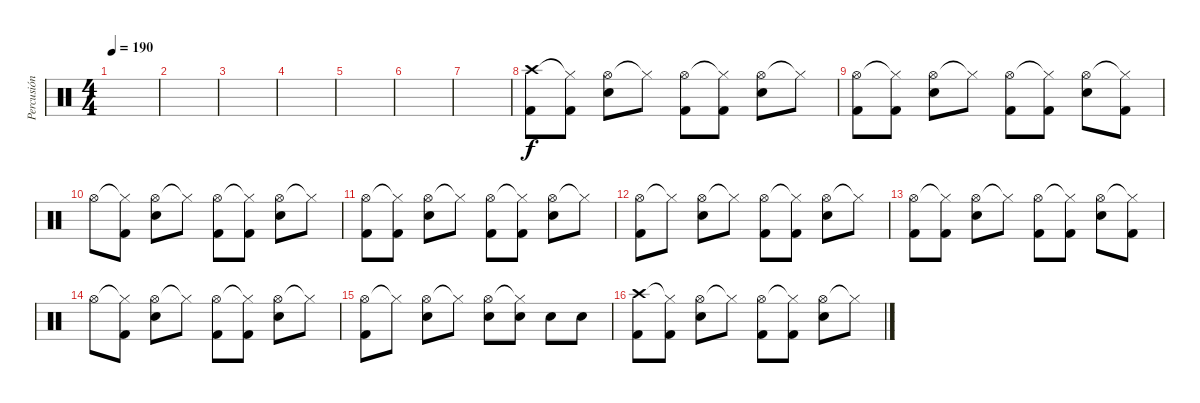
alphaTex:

\track ("Percusión" "Percusión") {instrument percussion}
\staff {score}
\articulation defaults
\ts (4 4)
\tempo 190
\clef neutral
\ks c
|
|
|
|
|
|
|
("Crash high (hit)" "Kick (hit) 2").8 ("Hi-Hat (closed)"{t} "Kick (hit) 2").8 ("Hi-Hat (open)" "Snare (hit) 2").8 "Hi-Hat (closed)"{t}.8 ("Hi-Hat (open)" "Kick (hit) 2").8 ("Hi-Hat (closed)"{t} "Kick (hit) 2").8 ("Hi-Hat (open)" "Snare (hit) 2").8 "Hi-Hat (closed)"{t}.8 |
("Hi-Hat (open)" "Kick (hit) 2").8 ("Hi-Hat (closed)"{t} "Kick (hit) 2").8 ("Hi-Hat (open)" "Snare (hit) 2").8 "Hi-Hat (closed)"{t}.8 ("Hi-Hat (open)" "Kick (hit) 2").8 ("Hi-Hat (closed)"{t} "Kick (hit) 2").8 ("Hi-Hat (open)" "Snare (hit) 2").8 ("Hi-Hat (closed)"{t} "Kick (hit) 2").8 |
"Hi-Hat (open)".8 ("Hi-Hat (closed)"{t} "Kick (hit) 2").8 ("Hi-Hat (open)" "Snare (hit) 2").8 "Hi-Hat (closed)"{t}.8 ("Hi-Hat (open)" "Kick (hit) 2").8 ("Hi-Hat (closed)"{t} "Kick (hit) 2").8 ("Hi-Hat (open)" "Snare (hit) 2").8 "Hi-Hat (closed)"{t}.8 |
("Hi-Hat (open)" "Kick (hit) 2").8 ("Hi-Hat (closed)"{t} "Kick (hit) 2").8 ("Hi-Hat (open)" "Snare (hit) 2").8 "Hi-Hat (closed)"{t}.8 ("Hi-Hat (open)" "Kick (hit) 2").8 ("Hi-Hat (closed)"{t} "Kick (hit) 2").8 ("Hi-Hat (open)" "Snare (hit) 2").8 "Hi-Hat (closed)"{t}.8 |
("Hi-Hat (open)" "Kick (hit) 2").8 "Hi-Hat (closed)"{t}.8 ("Hi-Hat (open)" "Snare (hit) 2").8 "Hi-Hat (closed)"{t}.8 ("Hi-Hat (open)" "Kick (hit) 2").8 ("Hi-Hat (closed)"{t} "Kick (hit) 2").8 ("Hi-Hat (open)" "Snare (hit) 2").8 "Hi-Hat (closed)"{t}.8 |
("Hi-Hat (open)" "Kick (hit) 2").8 ("Hi-Hat (closed)"{t} "Kick (hit) 2").8 ("Hi-Hat (open)" "Snare (hit) 2").8 "Hi-Hat (closed)"{t}.8 ("Hi-Hat (open)" "Kick (hit) 2").8 ("Hi-Hat (closed)"{t} "Kick (hit) 2").8 ("Hi-Hat (open)" "Snare (hit) 2").8 ("Hi-Hat (closed)"{t} "Kick (hit) 2").8 |
"Hi-Hat (open)".8 ("Hi-Hat (closed)"{t} "Kick (hit) 2").8 ("Hi-Hat (open)" "Snare (hit) 2").8 "Hi-Hat (closed)"{t}.8 ("Hi-Hat (open)" "Kick (hit) 2").8 ("Hi-Hat (closed)"{t} "Kick (hit) 2").8 ("Hi-Hat (open)" "Snare (hit) 2").8 "Hi-Hat (closed)"{t}.8 |
("Hi-Hat (open)" "Kick (hit) 2").8 "Hi-Hat (closed)"{t}.8 ("Hi-Hat (open)" "Snare (hit) 2").8 "Hi-Hat (closed)"{t}.8 ("Hi-Hat (open)" "Snare (hit) 2").8 ("Hi-Hat (closed)"{t} "Snare (hit) 2").8 "Snare (hit) 2".8 "Snare (hit) 2".8 |
("Crash high (hit)" "Kick (hit) 2").8 ("Hi-Hat (closed)"{t} "Kick (hit) 2").8 ("Hi-Hat (open)" "Snare (hit) 2").8 "Hi-Hat (closed)"{t}.8 ("Hi-Hat (open)" "Kick (hit) 2").8 ("Hi-Hat (closed)"{t} "Kick (hit) 2").8 ("Hi-Hat (open)" "Snare (hit) 2").8 "Hi-Hat (closed)"{t}.8
